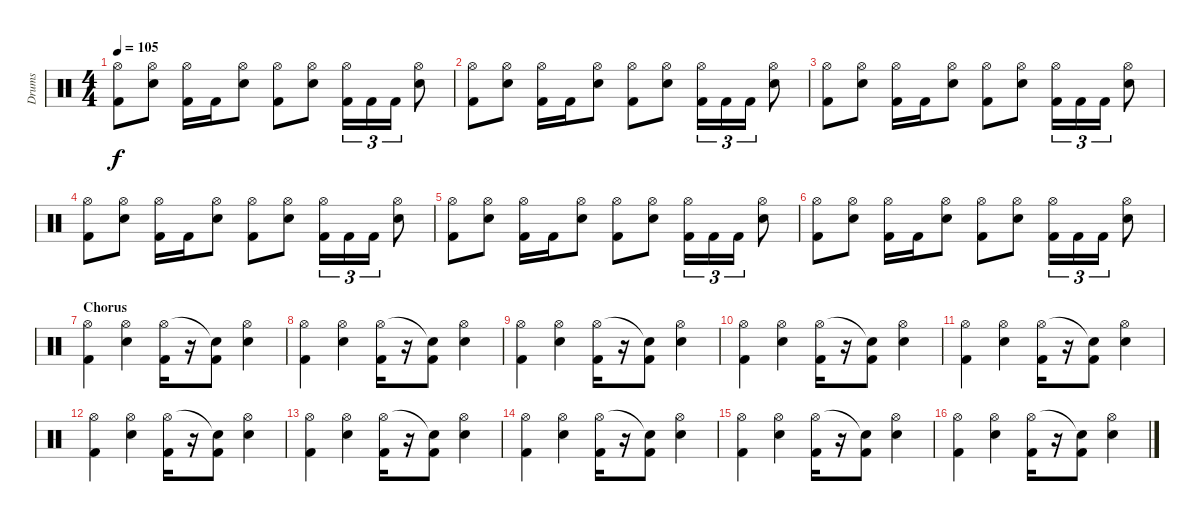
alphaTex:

\track ("Drums" "Drums") {instrument percussion}
\staff {score}
\articulation defaults
\ts (4 4)
\tempo 105
\clef neutral
\ks c
("Hi-Hat (open)" "Kick (hit) 2").8{dy f} ("Hi-Hat (open)" "Electric Snare (hit)").8 ("Hi-Hat (open)" "Kick (hit) 2").16 "Kick (hit) 2".16 ("Hi-Hat (open)" "Electric Snare (hit)").8 ("Hi-Hat (open)" "Kick (hit) 2").8 ("Hi-Hat (open)" "Electric Snare (hit)").8 ("Hi-Hat (open)" "Kick (hit) 2").16{tu (3 2)} "Kick (hit) 2".16{tu (3 2)} "Kick (hit) 2".16{tu (3 2)} ("Hi-Hat (open)" "Electric Snare (hit)").8 |
("Hi-Hat (open)" "Kick (hit) 2").8 ("Hi-Hat (open)" "Electric Snare (hit)").8 ("Hi-Hat (open)" "Kick (hit) 2").16 "Kick (hit) 2".16 ("Hi-Hat (open)" "Electric Snare (hit)").8 ("Hi-Hat (open)" "Kick (hit) 2").8 ("Hi-Hat (open)" "Electric Snare (hit)").8 ("Hi-Hat (open)" "Kick (hit) 2").16{tu (3 2)} "Kick (hit) 2".16{tu (3 2)} "Kick (hit) 2".16{tu (3 2)} ("Hi-Hat (open)" "Electric Snare (hit)").8 |
("Hi-Hat (open)" "Kick (hit) 2").8 ("Hi-Hat (open)" "Electric Snare (hit)").8 ("Hi-Hat (open)" "Kick (hit) 2").16 "Kick (hit) 2".16 ("Hi-Hat (open)" "Electric Snare (hit)").8 ("Hi-Hat (open)" "Kick (hit) 2").8 ("Hi-Hat (open)" "Electric Snare (hit)").8 ("Hi-Hat (open)" "Kick (hit) 2").16{tu (3 2)} "Kick (hit) 2".16{tu (3 2)} "Kick (hit) 2".16{tu (3 2)} ("Hi-Hat (open)" "Electric Snare (hit)").8 |
("Hi-Hat (open)" "Kick (hit) 2").8 ("Hi-Hat (open)" "Electric Snare (hit)").8 ("Hi-Hat (open)" "Kick (hit) 2").16 "Kick (hit) 2".16 ("Hi-Hat (open)" "Electric Snare (hit)").8 ("Hi-Hat (open)" "Kick (hit) 2").8 ("Hi-Hat (open)" "Electric Snare (hit)").8 ("Hi-Hat (open)" "Kick (hit) 2").16{tu (3 2)} "Kick (hit) 2".16{tu (3 2)} "Kick (hit) 2".16{tu (3 2)} ("Hi-Hat (open)" "Electric Snare (hit)").8 |
("Hi-Hat (open)" "Kick (hit) 2").8 ("Hi-Hat (open)" "Electric Snare (hit)").8 ("Hi-Hat (open)" "Kick (hit) 2").16 "Kick (hit) 2".16 ("Hi-Hat (open)" "Electric Snare (hit)").8 ("Hi-Hat (open)" "Kick (hit) 2").8 ("Hi-Hat (open)" "Electric Snare (hit)").8 ("Hi-Hat (open)" "Kick (hit) 2").16{tu (3 2)} "Kick (hit) 2".16{tu (3 2)} "Kick (hit) 2".16{tu (3 2)} ("Hi-Hat (open)" "Electric Snare (hit)").8 |
("Hi-Hat (open)" "Kick (hit) 2").8 ("Hi-Hat (open)" "Electric Snare (hit)").8 ("Hi-Hat (open)" "Kick (hit) 2").16 "Kick (hit) 2".16 ("Hi-Hat (open)" "Electric Snare (hit)").8 ("Hi-Hat (open)" "Kick (hit) 2").8 ("Hi-Hat (open)" "Electric Snare (hit)").8 ("Hi-Hat (open)" "Kick (hit) 2").16{tu (3 2)} "Kick (hit) 2".16{tu (3 2)} "Kick (hit) 2".16{tu (3 2)} ("Hi-Hat (open)" "Electric Snare (hit)").8 |
\section ("" "Chorus")
("Hi-Hat (open)" "Kick (hit) 2").4 ("Hi-Hat (open)" "Electric Snare (hit)").4 ("Hi-Hat (open)" "Kick (hit) 2").16 r.16 ("Snare (hit)"{t} "Kick (hit) 2").8 ("Hi-Hat (open)" "Electric Snare (hit)").4 |
("Hi-Hat (open)" "Kick (hit) 2").4 ("Hi-Hat (open)" "Electric Snare (hit)").4 ("Hi-Hat (open)" "Kick (hit) 2").16 r.16 ("Snare (hit)"{t} "Kick (hit) 2").8 ("Hi-Hat (open)" "Electric Snare (hit)").4 |
("Hi-Hat (open)" "Kick (hit) 2").4 ("Hi-Hat (open)" "Electric Snare (hit)").4 ("Hi-Hat (open)" "Kick (hit) 2").16 r.16 ("Snare (hit)"{t} "Kick (hit) 2").8 ("Hi-Hat (open)" "Electric Snare (hit)").4 |
("Hi-Hat (open)" "Kick (hit) 2").4 ("Hi-Hat (open)" "Electric Snare (hit)").4 ("Hi-Hat (open)" "Kick (hit) 2").16 r.16 ("Snare (hit)"{t} "Kick (hit) 2").8 ("Hi-Hat (open)" "Electric Snare (hit)").4 |
("Hi-Hat (open)" "Kick (hit) 2").4 ("Hi-Hat (open)" "Electric Snare (hit)").4 ("Hi-Hat (open)" "Kick (hit) 2").16 r.16 ("Snare (hit)"{t} "Kick (hit) 2").8 ("Hi-Hat (open)" "Electric Snare (hit)").4 |
("Hi-Hat (open)" "Kick (hit) 2").4 ("Hi-Hat (open)" "Electric Snare (hit)").4 ("Hi-Hat (open)" "Kick (hit) 2").16 r.16 ("Snare (hit)"{t} "Kick (hit) 2").8 ("Hi-Hat (open)" "Electric Snare (hit)").4 |
("Hi-Hat (open)" "Kick (hit) 2").4 ("Hi-Hat (open)" "Electric Snare (hit)").4 ("Hi-Hat (open)" "Kick (hit) 2").16 r.16 ("Snare (hit)"{t} "Kick (hit) 2").8 ("Hi-Hat (open)" "Electric Snare (hit)").4 |
("Hi-Hat (open)" "Kick (hit) 2").4 ("Hi-Hat (open)" "Electric Snare (hit)").4 ("Hi-Hat (open)" "Kick (hit) 2").16 r.16 ("Snare (hit)"{t} "Kick (hit) 2").8 ("Hi-Hat (open)" "Electric Snare (hit)").4 |
("Hi-Hat (open)" "Kick (hit) 2").4 ("Hi-Hat (open)" "Electric Snare (hit)").4 ("Hi-Hat (open)" "Kick (hit) 2").16 r.16 ("Snare (hit)"{t} "Kick (hit) 2").8 ("Hi-Hat (open)" "Electric Snare (hit)").4 |
("Hi-Hat (open)" "Kick (hit) 2").4 ("Hi-Hat (open)" "Electric Snare (hit)").4 ("Hi-Hat (open)" "Kick (hit) 2").16 r.16 ("Snare (hit)"{t} "Kick (hit) 2").8 ("Hi-Hat (open)" "Electric Snare (hit)").4
